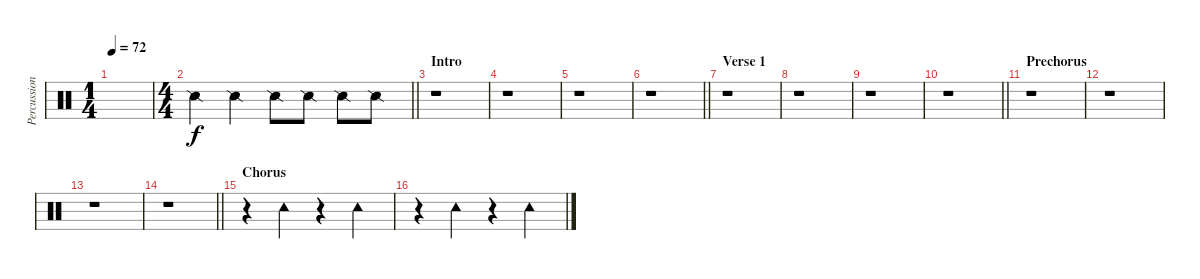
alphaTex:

\track ("Percussion" "Percussion") {instrument percussion}
\staff {score}
\articulation defaults
\ts (1 4)
\tempo 72
\clef neutral
\ks c
|
\ts (4 4)
\barLineRight lightlight "Snare (side stick) 2".4 "Snare (side stick) 2".4 "Snare (side stick) 2".8 "Snare (side stick) 2".8 "Snare (side stick) 2".8 "Snare (side stick) 2".8
|
\section ("" "Intro")
r.1 |
r.1 |
r.1 |
\barLineRight lightlight
r.1 |
\section ("" "Verse 1")
r.1 |
r.1 |
r.1 |
\barLineRight lightlight
r.1 |
\section ("" "Prechorus")
r.1 |
r.1 |
r.1 |
\barLineRight lightlight
r.1 |
\section ("" "Chorus")
r.4 "Tambourine (hit)".4 r.4 "Tambourine (hit)".4 |
r.4 "Tambourine (hit)".4 r.4 "Tambourine (hit)".4
